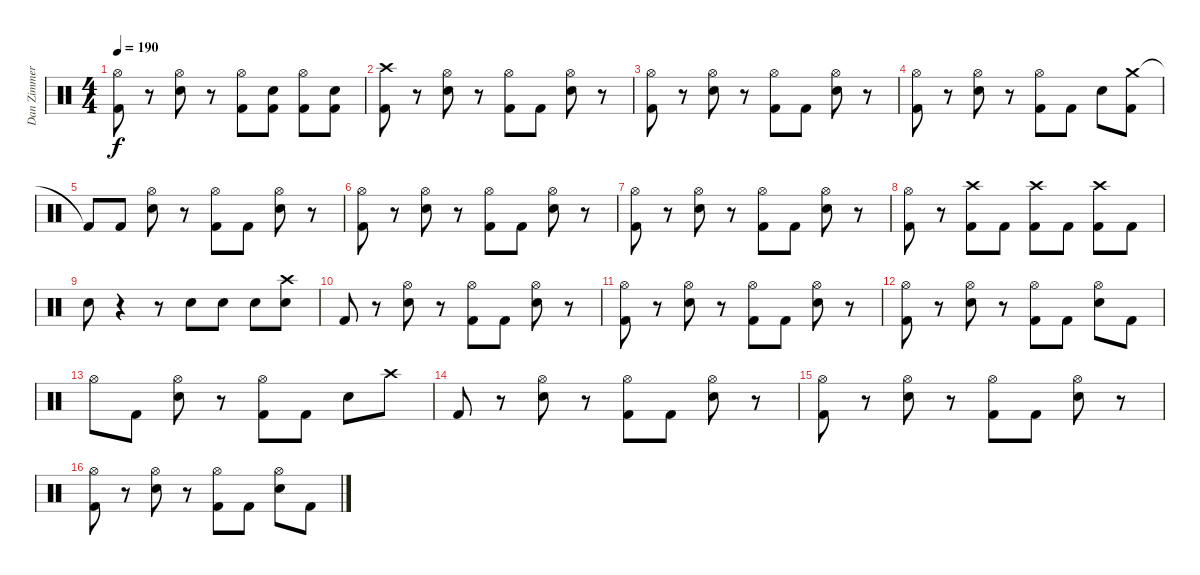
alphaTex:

\track ("Dan Zimmermann" "Dan Zimmer") {instrument percussion}
\staff {score}
\articulation defaults
\ts (4 4)
\tempo 190
\clef neutral
\ks c
("Hi-Hat (open)" "Kick (hit) 2").8{dy f} r.8 ("Hi-Hat (open)" "Electric Snare (hit)").8 r.8 ("Hi-Hat (open)" "Kick (hit) 2").8 ("Electric Snare (hit)" "Kick (hit) 2").8 ("Hi-Hat (open)" "Kick (hit) 2").8 ("Electric Snare (hit)" "Kick (hit) 2").8 |
("Crash high (hit)" "Kick (hit) 2").8 r.8 ("Hi-Hat (open)" "Electric Snare (hit)").8 r.8 ("Hi-Hat (open)" "Kick (hit) 2").8 "Kick (hit) 2".8 ("Hi-Hat (open)" "Electric Snare (hit)").8 r.8 |
("Hi-Hat (open)" "Kick (hit) 2").8 r.8 ("Hi-Hat (open)" "Electric Snare (hit)").8 r.8 ("Hi-Hat (open)" "Kick (hit) 2").8 "Kick (hit) 2".8 ("Hi-Hat (open)" "Electric Snare (hit)").8 r.8 |
("Hi-Hat (open)" "Kick (hit) 2").8 r.8 ("Hi-Hat (open)" "Electric Snare (hit)").8 r.8 ("Hi-Hat (open)" "Kick (hit) 2").8 "Kick (hit) 2".8 "Electric Snare (hit)".8 ("Crash medium (hit)" "Kick (hit) 2").8 |
"Kick (hit) 2"{t}.8 "Kick (hit) 2".8 ("Hi-Hat (open)" "Electric Snare (hit)").8 r.8 ("Hi-Hat (open)" "Kick (hit) 2").8 "Kick (hit) 2".8 ("Hi-Hat (open)" "Electric Snare (hit)").8 r.8 |
("Hi-Hat (open)" "Kick (hit) 2").8 r.8 ("Hi-Hat (open)" "Electric Snare (hit)").8 r.8 ("Hi-Hat (open)" "Kick (hit) 2").8 "Kick (hit) 2".8 ("Hi-Hat (open)" "Electric Snare (hit)").8 r.8 |
("Hi-Hat (open)" "Kick (hit) 2").8 r.8 ("Hi-Hat (open)" "Electric Snare (hit)").8 r.8 ("Hi-Hat (open)" "Kick (hit) 2").8 "Kick (hit) 2".8 ("Hi-Hat (open)" "Electric Snare (hit)").8 r.8 |
("Hi-Hat (open)" "Kick (hit) 2").8 r.8 ("Crash high (hit)" "Kick (hit) 2").8 "Kick (hit) 2".8 ("Crash high (hit)" "Kick (hit) 2").8 "Kick (hit) 2".8 ("Crash high (hit)" "Kick (hit) 2").8 "Kick (hit) 2".8 |
"Electric Snare (hit)".8 r.4 r.8 "Electric Snare (hit)".8 "Electric Snare (hit)".8 "Electric Snare (hit)".8 ("Crash high (hit)" "Electric Snare (hit)").8 |
"Kick (hit) 2".8 r.8 ("Hi-Hat (open)" "Electric Snare (hit)").8 r.8 ("Hi-Hat (open)" "Kick (hit) 2").8 "Kick (hit) 2".8 ("Hi-Hat (open)" "Electric Snare (hit)").8 r.8 |
("Hi-Hat (open)" "Kick (hit) 2").8 r.8 ("Hi-Hat (open)" "Electric Snare (hit)").8 r.8 ("Hi-Hat (open)" "Kick (hit) 2").8 "Kick (hit) 2".8 ("Hi-Hat (open)" "Electric Snare (hit)").8 r.8 |
("Hi-Hat (open)" "Kick (hit) 2").8 r.8 ("Hi-Hat (open)" "Electric Snare (hit)").8 r.8 ("Hi-Hat (open)" "Kick (hit) 2").8 "Kick (hit) 2".8 ("Hi-Hat (open)" "Electric Snare (hit)").8 "Kick (hit) 2".8 |
"Hi-Hat (open)".8 "Kick (hit) 2".8 ("Hi-Hat (open)" "Electric Snare (hit)").8 r.8 ("Hi-Hat (open)" "Kick (hit) 2").8 "Kick (hit) 2".8 "Electric Snare (hit)".8 "Crash high (hit)".8 |
"Kick (hit) 2".8 r.8 ("Hi-Hat (open)" "Electric Snare (hit)").8 r.8 ("Hi-Hat (open)" "Kick (hit) 2").8 "Kick (hit) 2".8 ("Hi-Hat (open)" "Electric Snare (hit)").8 r.8 |
("Hi-Hat (open)" "Kick (hit) 2").8 r.8 ("Hi-Hat (open)" "Electric Snare (hit)").8 r.8 ("Hi-Hat (open)" "Kick (hit) 2").8 "Kick (hit) 2".8 ("Hi-Hat (open)" "Electric Snare (hit)").8 r.8 |
("Hi-Hat (open)" "Kick (hit) 2").8 r.8 ("Hi-Hat (open)" "Electric Snare (hit)").8 r.8 ("Hi-Hat (open)" "Kick (hit) 2").8 "Kick (hit) 2".8 ("Hi-Hat (open)" "Electric Snare (hit)").8 "Kick (hit) 2".8
